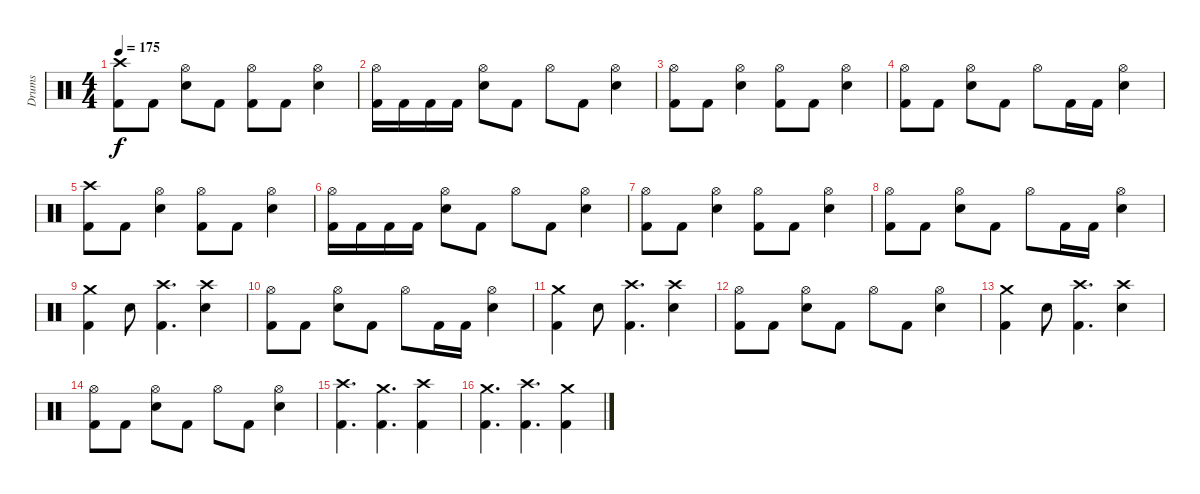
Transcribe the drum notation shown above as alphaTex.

\track ("Drums" "Drums") {instrument percussion}
\staff {score}
\articulation defaults
\ts (4 4)
\tempo 175
\clef neutral
\ks c
("Crash high (hit)" "Kick (hit) 2").8{dy f} "Kick (hit) 2".8 ("Hi-Hat (open)" "Electric Snare (hit)").8 "Kick (hit) 2".8 ("Hi-Hat (open)" "Kick (hit) 2").8 "Kick (hit) 2".8 ("Hi-Hat (open)" "Electric Snare (hit)").4 |
("Hi-Hat (open)" "Kick (hit) 2").16 "Kick (hit) 2".16 "Kick (hit) 2".16 "Kick (hit) 2".16 ("Hi-Hat (open)" "Electric Snare (hit)").8 "Kick (hit) 2".8 "Hi-Hat (open)".8 "Kick (hit) 2".8 ("Hi-Hat (open)" "Electric Snare (hit)").4 |
("Hi-Hat (open)" "Kick (hit) 2").8 "Kick (hit) 2".8 ("Hi-Hat (open)" "Electric Snare (hit)").4 ("Hi-Hat (open)" "Kick (hit) 2").8 "Kick (hit) 2".8 ("Hi-Hat (open)" "Electric Snare (hit)").4 |
("Hi-Hat (open)" "Kick (hit) 2").8 "Kick (hit) 2".8 ("Hi-Hat (open)" "Electric Snare (hit)").8 "Kick (hit) 2".8 "Hi-Hat (open)".8 "Kick (hit) 2".16 "Kick (hit) 2".16 ("Hi-Hat (open)" "Electric Snare (hit)").4 |
("Crash high (hit)" "Kick (hit) 2").8 "Kick (hit) 2".8 ("Hi-Hat (open)" "Electric Snare (hit)").4 ("Hi-Hat (open)" "Kick (hit) 2").8 "Kick (hit) 2".8 ("Hi-Hat (open)" "Electric Snare (hit)").4 |
("Hi-Hat (open)" "Kick (hit) 2").16 "Kick (hit) 2".16 "Kick (hit) 2".16 "Kick (hit) 2".16 ("Hi-Hat (open)" "Electric Snare (hit)").8 "Kick (hit) 2".8 "Hi-Hat (open)".8 "Kick (hit) 2".8 ("Hi-Hat (open)" "Electric Snare (hit)").4 |
("Hi-Hat (open)" "Kick (hit) 2").8 "Kick (hit) 2".8 ("Hi-Hat (open)" "Electric Snare (hit)").4 ("Hi-Hat (open)" "Kick (hit) 2").8 "Kick (hit) 2".8 ("Hi-Hat (open)" "Electric Snare (hit)").4 |
("Hi-Hat (open)" "Kick (hit) 2").8 "Kick (hit) 2".8 ("Hi-Hat (open)" "Electric Snare (hit)").8 "Kick (hit) 2".8 "Hi-Hat (open)".8 "Kick (hit) 2".16 "Kick (hit) 2".16 ("Hi-Hat (open)" "Electric Snare (hit)").4 |
("Crash medium (hit)" "Kick (hit) 2").4 "Electric Snare (hit)".8 ("Crash high (hit)" "Kick (hit) 2").4{d} ("Crash high (hit)" "Electric Snare (hit)").4 |
("Hi-Hat (open)" "Kick (hit) 2").8 "Kick (hit) 2".8 ("Hi-Hat (open)" "Electric Snare (hit)").8 "Kick (hit) 2".8 "Hi-Hat (open)".8 "Kick (hit) 2".16 "Kick (hit) 2".16 ("Hi-Hat (open)" "Electric Snare (hit)").4 |
("Crash medium (hit)" "Kick (hit) 2").4 "Electric Snare (hit)".8 ("Crash high (hit)" "Kick (hit) 2").4{d} ("Crash high (hit)" "Electric Snare (hit)").4 |
("Hi-Hat (open)" "Kick (hit) 2").8 "Kick (hit) 2".8 ("Hi-Hat (open)" "Electric Snare (hit)").8 "Kick (hit) 2".8 "Hi-Hat (open)".8 "Kick (hit) 2".8 ("Hi-Hat (open)" "Electric Snare (hit)").4 |
("Crash medium (hit)" "Kick (hit) 2").4 "Electric Snare (hit)".8 ("Crash high (hit)" "Kick (hit) 2").4{d} ("Crash high (hit)" "Electric Snare (hit)").4 |
("Hi-Hat (open)" "Kick (hit) 2").8 "Kick (hit) 2".8 ("Hi-Hat (open)" "Electric Snare (hit)").8 "Kick (hit) 2".8 "Hi-Hat (open)".8 "Kick (hit) 2".8 ("Hi-Hat (open)" "Electric Snare (hit)").4 |
("Crash high (hit)" "Kick (hit) 2").4{d} ("Crash medium (hit)" "Kick (hit) 2").4{d} ("Crash high (hit)" "Kick (hit) 2").4 |
("Crash medium (hit)" "Kick (hit) 2").4{d} ("Crash high (hit)" "Kick (hit) 2").4{d} ("Crash medium (hit)" "Kick (hit) 2").4
